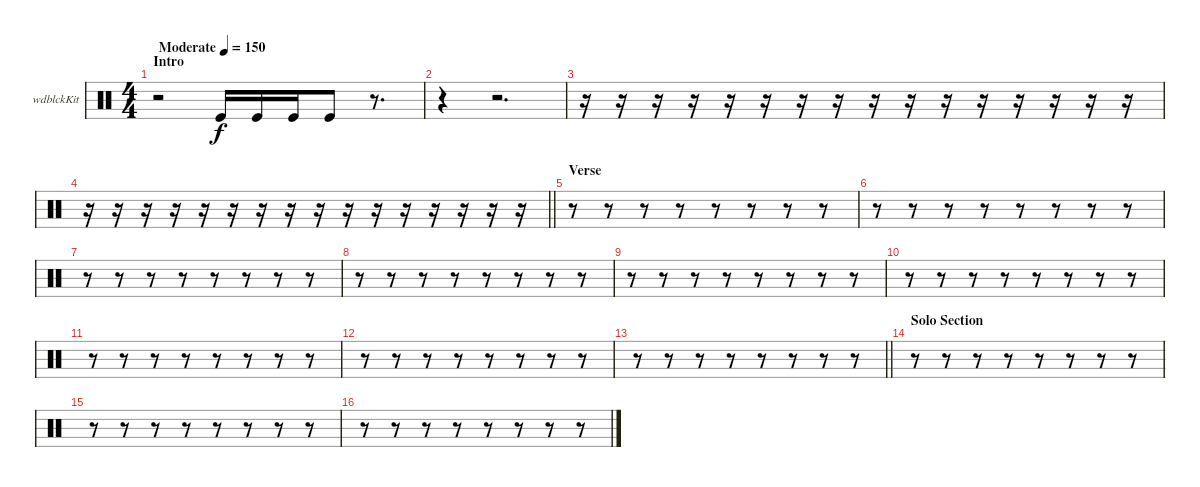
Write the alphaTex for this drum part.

\bracketExtendMode groupsimilarinstruments
\firstSystemTrackNameOrientation horizontal
\otherSystemsTrackNameOrientation horizontal
\track ("Woodblock" "wdblckKit") {instrument percussion}
\staff {score}
\articulation defaults
\ts (4 4)
\beaming (8 2 2 2 2)
\section ("" "Intro")
\tempo (150 "Moderate")
\clef neutral
\ks c
r.2{dy f} "Kick (hit)".16 "Kick (hit)".16 "Kick (hit)".16 "Kick (hit)".8 r.8{d} |
r.4 r.2{d} |
r.16 r.16 r.16 r.16 r.16 r.16 r.16 r.16 r.16 r.16 r.16 r.16 r.16 r.16 r.16 r.16 |
\barLineRight lightlight
r.16 r.16 r.16 r.16 r.16 r.16 r.16 r.16 r.16 r.16 r.16 r.16 r.16 r.16 r.16 r.16 |
\section ("" "Verse")
r.8 r.8 r.8 r.8 r.8 r.8 r.8 r.8 |
r.8 r.8 r.8 r.8 r.8 r.8 r.8 r.8 |
r.8 r.8 r.8 r.8 r.8 r.8 r.8 r.8 |
r.8 r.8 r.8 r.8 r.8 r.8 r.8 r.8 |
r.8 r.8 r.8 r.8 r.8 r.8 r.8 r.8 |
r.8 r.8 r.8 r.8 r.8 r.8 r.8 r.8 |
r.8 r.8 r.8 r.8 r.8 r.8 r.8 r.8 |
r.8 r.8 r.8 r.8 r.8 r.8 r.8 r.8 |
\barLineRight lightlight
r.8 r.8 r.8 r.8 r.8 r.8 r.8 r.8 |
\section ("" "Solo Section")
r.8 r.8 r.8 r.8 r.8 r.8 r.8 r.8 |
r.8 r.8 r.8 r.8 r.8 r.8 r.8 r.8 |
r.8 r.8 r.8 r.8 r.8 r.8 r.8 r.8
